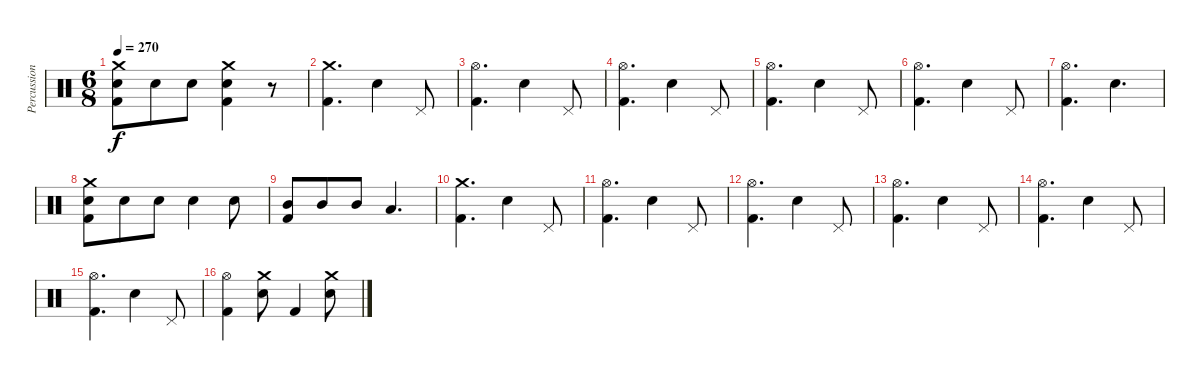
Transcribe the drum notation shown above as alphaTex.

\track ("Percussion" "Percussion") {instrument percussion}
\staff {score}
\articulation defaults
\ts (6 8)
\tempo 270
\clef neutral
\ks c
("Crash medium (hit)" "Snare (hit) 2" "Kick (hit) 2").8{dy f} "Electric Snare (hit)".8 "Electric Snare (hit)".8 ("Crash medium (hit)" "Electric Snare (hit)" "Kick (hit) 2").4 r.8 |
("Crash medium (hit)" "Kick (hit) 2").4{d} "Electric Snare (hit)".4 "Pedal Hi-Hat (hit)".8 |
("Hi-Hat (open)" "Kick (hit) 2").4{d} "Electric Snare (hit)".4 "Pedal Hi-Hat (hit)".8 |
("Hi-Hat (open)" "Kick (hit) 2").4{d} "Electric Snare (hit)".4 "Pedal Hi-Hat (hit)".8 |
("Hi-Hat (open)" "Kick (hit) 2").4{d} "Electric Snare (hit)".4 "Pedal Hi-Hat (hit)".8 |
("Hi-Hat (open)" "Kick (hit) 2").4{d} "Electric Snare (hit)".4 "Pedal Hi-Hat (hit)".8 |
("Hi-Hat (open)" "Kick (hit) 2").4{d} "Electric Snare (hit)".4{d} |
("Crash medium (hit)" "Snare (hit) 2" "Kick (hit) 2").8 "Electric Snare (hit)".8 "Electric Snare (hit)".8 "Electric Snare (hit)".4 "Electric Snare (hit)".8 |
("Mid Tom (hit)" "Kick (hit) 2").8 "Mid Tom (hit)".8 "Mid Tom (hit)".8 "Low Tom (hit)".4{d} |
("Crash medium (hit)" "Kick (hit) 2").4{d} "Electric Snare (hit)".4 "Pedal Hi-Hat (hit)".8 |
("Hi-Hat (open)" "Kick (hit) 2").4{d} "Electric Snare (hit)".4 "Pedal Hi-Hat (hit)".8 |
("Hi-Hat (open)" "Kick (hit) 2").4{d} "Electric Snare (hit)".4 "Pedal Hi-Hat (hit)".8 |
("Hi-Hat (open)" "Kick (hit) 2").4{d} "Electric Snare (hit)".4 "Pedal Hi-Hat (hit)".8 |
("Hi-Hat (open)" "Kick (hit) 2").4{d} "Electric Snare (hit)".4 "Pedal Hi-Hat (hit)".8 |
("Hi-Hat (open)" "Kick (hit) 2").4{d} "Electric Snare (hit)".4 "Pedal Hi-Hat (hit)".8 |
("Hi-Hat (open)" "Kick (hit) 2").4 ("Crash medium (hit)" "Electric Snare (hit)").8 "Kick (hit) 2".4 ("Crash medium (hit)" "Electric Snare (hit)").8
